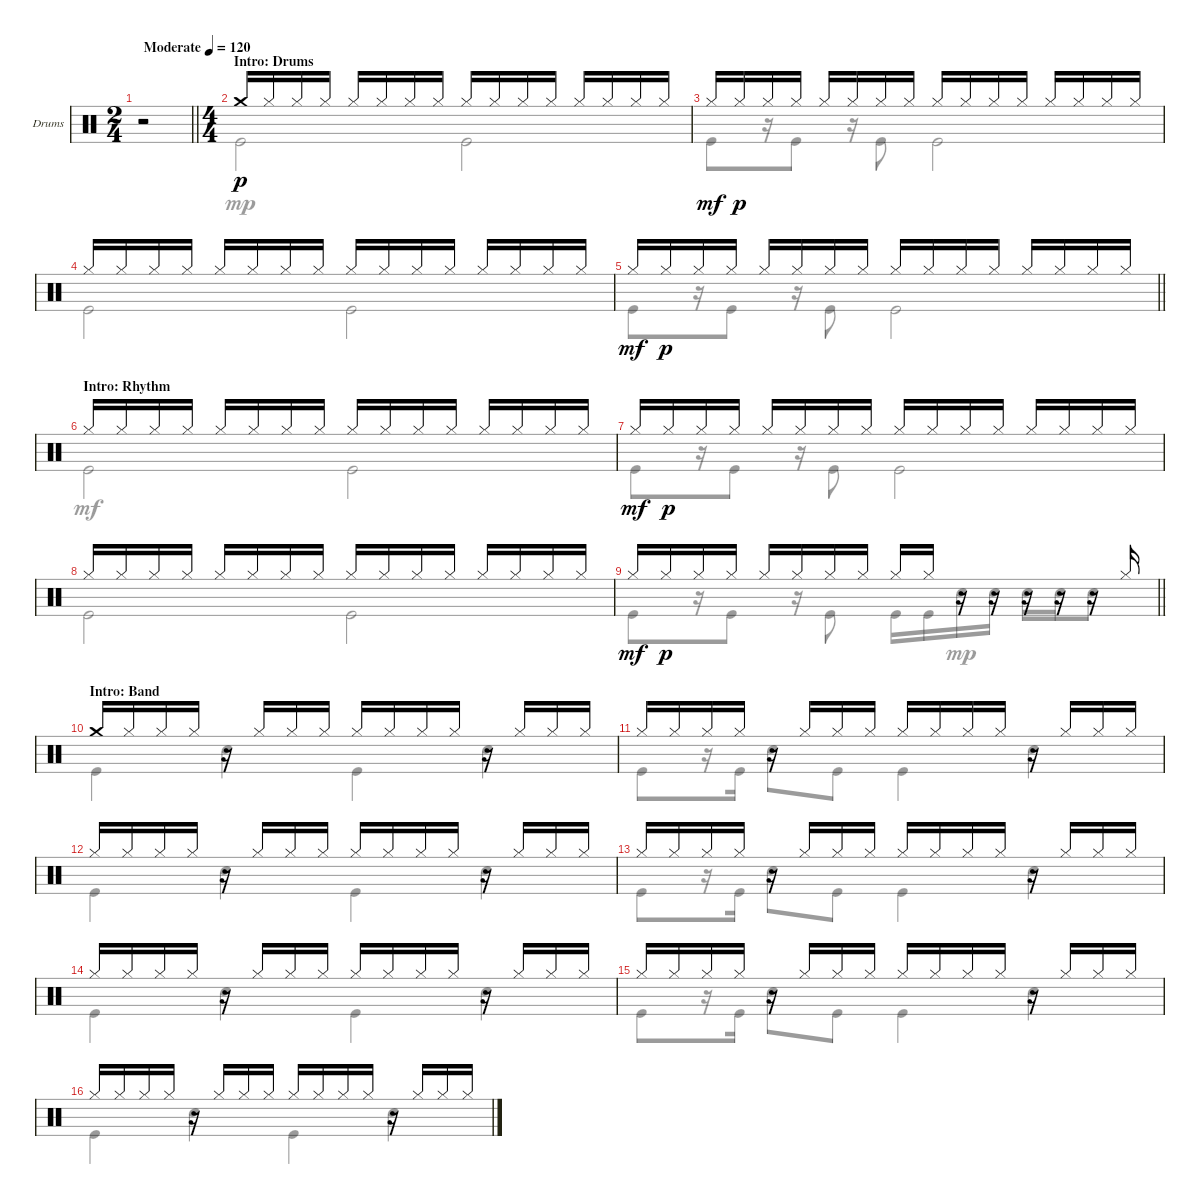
\bracketExtendMode groupsimilarinstruments
\firstSystemTrackNameOrientation horizontal
\otherSystemsTrackNameOrientation horizontal
\track ("Drumkit" "Drums") {instrument percussion}
\staff {score}
\articulation defaults
\voice
\ts (2 4)
\beaming (8 2 2)
\tempo (120 "Moderate")
\clef neutral
\barLineRight lightlight
\ks c
r.2{dy p} |
\ts (4 4)
\beaming (8 2 2 2 2)
\section ("" "Intro: Drums")
"Crash medium (hit)".16 "Hi-Hat (closed)".16 "Hi-Hat (closed)".16 "Hi-Hat (closed)".16 "Hi-Hat (closed)".16 "Hi-Hat (closed)".16 "Hi-Hat (closed)".16 "Hi-Hat (closed)".16 "Hi-Hat (closed)".16 "Hi-Hat (closed)".16 "Hi-Hat (closed)".16 "Hi-Hat (closed)".16 "Hi-Hat (closed)".16 "Hi-Hat (closed)".16 "Hi-Hat (closed)".16 "Hi-Hat (closed)".16 |
"Hi-Hat (closed)".16{dy mf} "Hi-Hat (closed)".16{dy p} "Hi-Hat (closed)".16 "Hi-Hat (closed)".16 "Hi-Hat (closed)".16 "Hi-Hat (closed)".16 "Hi-Hat (closed)".16 "Hi-Hat (closed)".16 "Hi-Hat (closed)".16 "Hi-Hat (closed)".16 "Hi-Hat (closed)".16 "Hi-Hat (closed)".16 "Hi-Hat (closed)".16 "Hi-Hat (closed)".16 "Hi-Hat (closed)".16 "Hi-Hat (closed)".16 |
"Hi-Hat (closed)".16 "Hi-Hat (closed)".16 "Hi-Hat (closed)".16 "Hi-Hat (closed)".16 "Hi-Hat (closed)".16 "Hi-Hat (closed)".16 "Hi-Hat (closed)".16 "Hi-Hat (closed)".16 "Hi-Hat (closed)".16 "Hi-Hat (closed)".16 "Hi-Hat (closed)".16 "Hi-Hat (closed)".16 "Hi-Hat (closed)".16 "Hi-Hat (closed)".16 "Hi-Hat (closed)".16 "Hi-Hat (closed)".16 |
\barLineRight lightlight "Hi-Hat (closed)".16{dy mf} "Hi-Hat (closed)".16{dy p} "Hi-Hat (closed)".16 "Hi-Hat (closed)".16 "Hi-Hat (closed)".16 "Hi-Hat (closed)".16 "Hi-Hat (closed)".16 "Hi-Hat (closed)".16 "Hi-Hat (closed)".16 "Hi-Hat (closed)".16 "Hi-Hat (closed)".16 "Hi-Hat (closed)".16 "Hi-Hat (closed)".16 "Hi-Hat (closed)".16 "Hi-Hat (closed)".16 "Hi-Hat (closed)".16
|
\section ("" "Intro: Rhythm")
"Hi-Hat (closed)".16 "Hi-Hat (closed)".16 "Hi-Hat (closed)".16 "Hi-Hat (closed)".16 "Hi-Hat (closed)".16 "Hi-Hat (closed)".16 "Hi-Hat (closed)".16 "Hi-Hat (closed)".16 "Hi-Hat (closed)".16 "Hi-Hat (closed)".16 "Hi-Hat (closed)".16 "Hi-Hat (closed)".16 "Hi-Hat (closed)".16 "Hi-Hat (closed)".16 "Hi-Hat (closed)".16 "Hi-Hat (closed)".16 |
"Hi-Hat (closed)".16{dy mf} "Hi-Hat (closed)".16{dy p} "Hi-Hat (closed)".16 "Hi-Hat (closed)".16 "Hi-Hat (closed)".16 "Hi-Hat (closed)".16 "Hi-Hat (closed)".16 "Hi-Hat (closed)".16 "Hi-Hat (closed)".16 "Hi-Hat (closed)".16 "Hi-Hat (closed)".16 "Hi-Hat (closed)".16 "Hi-Hat (closed)".16 "Hi-Hat (closed)".16 "Hi-Hat (closed)".16 "Hi-Hat (closed)".16 |
"Hi-Hat (closed)".16 "Hi-Hat (closed)".16 "Hi-Hat (closed)".16 "Hi-Hat (closed)".16 "Hi-Hat (closed)".16 "Hi-Hat (closed)".16 "Hi-Hat (closed)".16 "Hi-Hat (closed)".16 "Hi-Hat (closed)".16 "Hi-Hat (closed)".16 "Hi-Hat (closed)".16 "Hi-Hat (closed)".16 "Hi-Hat (closed)".16 "Hi-Hat (closed)".16 "Hi-Hat (closed)".16 "Hi-Hat (closed)".16 |
\barLineRight lightlight "Hi-Hat (closed)".16{dy mf} "Hi-Hat (closed)".16{dy p} "Hi-Hat (closed)".16 "Hi-Hat (closed)".16 "Hi-Hat (closed)".16 "Hi-Hat (closed)".16 "Hi-Hat (closed)".16 "Hi-Hat (closed)".16 "Hi-Hat (closed)".16 "Hi-Hat (closed)".16
r.16 r.16 r.16 r.16 r.16 "Hi-Hat (closed)".16 |
\section ("" "Intro: Band")
"Crash medium (hit)".16 "Hi-Hat (closed)".16 "Hi-Hat (closed)".16 "Hi-Hat (closed)".16 r.16 "Hi-Hat (closed)".16 "Hi-Hat (closed)".16 "Hi-Hat (closed)".16 "Hi-Hat (closed)".16 "Hi-Hat (closed)".16 "Hi-Hat (closed)".16 "Hi-Hat (closed)".16 r.16 "Hi-Hat (closed)".16 "Hi-Hat (closed)".16 "Hi-Hat (closed)".16 |
"Hi-Hat (closed)".16 "Hi-Hat (closed)".16 "Hi-Hat (closed)".16 "Hi-Hat (closed)".16 r.16 "Hi-Hat (closed)".16 "Hi-Hat (closed)".16 "Hi-Hat (closed)".16 "Hi-Hat (closed)".16 "Hi-Hat (closed)".16 "Hi-Hat (closed)".16 "Hi-Hat (closed)".16 r.16 "Hi-Hat (closed)".16 "Hi-Hat (closed)".16 "Hi-Hat (closed)".16 |
"Hi-Hat (closed)".16 "Hi-Hat (closed)".16 "Hi-Hat (closed)".16 "Hi-Hat (closed)".16 r.16 "Hi-Hat (closed)".16 "Hi-Hat (closed)".16 "Hi-Hat (closed)".16 "Hi-Hat (closed)".16 "Hi-Hat (closed)".16 "Hi-Hat (closed)".16 "Hi-Hat (closed)".16 r.16 "Hi-Hat (closed)".16 "Hi-Hat (closed)".16 "Hi-Hat (closed)".16 |
"Hi-Hat (closed)".16 "Hi-Hat (closed)".16 "Hi-Hat (closed)".16 "Hi-Hat (closed)".16 r.16 "Hi-Hat (closed)".16 "Hi-Hat (closed)".16 "Hi-Hat (closed)".16 "Hi-Hat (closed)".16 "Hi-Hat (closed)".16 "Hi-Hat (closed)".16 "Hi-Hat (closed)".16 r.16 "Hi-Hat (closed)".16 "Hi-Hat (closed)".16 "Hi-Hat (closed)".16 |
"Hi-Hat (closed)".16 "Hi-Hat (closed)".16 "Hi-Hat (closed)".16 "Hi-Hat (closed)".16 r.16 "Hi-Hat (closed)".16 "Hi-Hat (closed)".16 "Hi-Hat (closed)".16 "Hi-Hat (closed)".16 "Hi-Hat (closed)".16 "Hi-Hat (closed)".16 "Hi-Hat (closed)".16 r.16 "Hi-Hat (closed)".16 "Hi-Hat (closed)".16 "Hi-Hat (closed)".16 |
"Hi-Hat (closed)".16 "Hi-Hat (closed)".16 "Hi-Hat (closed)".16 "Hi-Hat (closed)".16 r.16 "Hi-Hat (closed)".16 "Hi-Hat (closed)".16 "Hi-Hat (closed)".16 "Hi-Hat (closed)".16 "Hi-Hat (closed)".16 "Hi-Hat (closed)".16 "Hi-Hat (closed)".16 r.16 "Hi-Hat (closed)".16 "Hi-Hat (closed)".16 "Hi-Hat (closed)".16 |
"Hi-Hat (closed)".16 "Hi-Hat (closed)".16 "Hi-Hat (closed)".16 "Hi-Hat (closed)".16 r.16 "Hi-Hat (closed)".16 "Hi-Hat (closed)".16 "Hi-Hat (closed)".16 "Hi-Hat (closed)".16 "Hi-Hat (closed)".16 "Hi-Hat (closed)".16 "Hi-Hat (closed)".16 r.16 "Hi-Hat (closed)".16 "Hi-Hat (closed)".16 "Hi-Hat (closed)".16
\voice
\clef neutral
\ottava regular
\simile none
\barLineRight lightlight
\ks c
r.2{dy mp} |
"Kick (hit)".2 "Kick (hit)".2 |
"Kick (hit)".8 r.16 "Kick (hit)".8 r.16 "Kick (hit)".8 "Kick (hit)".2 |
"Kick (hit)".2 "Kick (hit)".2 |
\barLineRight lightlight "Kick (hit)".8
r.16 "Kick (hit)".8 r.16 "Kick (hit)".8 "Kick (hit)".2 |
"Kick (hit)".2{dy mf} "Kick (hit)".2 |
"Kick (hit)".8 r.16 "Kick (hit)".8 r.16 "Kick (hit)".8 "Kick (hit)".2 |
"Kick (hit)".2 "Kick (hit)".2 |
\barLineRight lightlight "Kick (hit)".8
r.16 "Kick (hit)".8 r.16 "Kick (hit)".8 "Kick (hit)".16 "Kick (hit)".16 "Snare (hit) 2".16{dy mp} "Snare (hit) 2".16 "Snare (hit) 2".16 "Snare (hit) 2".16 "Snare (hit) 2".8 |
"Kick (hit)".4 "Snare (hit) 2".4 "Kick (hit)".4 "Snare (hit) 2".4 |
"Kick (hit)".8 r.16 "Kick (hit)".16 "Snare (hit) 2".8 "Kick (hit)".8 "Kick (hit)".4 "Snare (hit) 2".4 |
"Kick (hit)".4 "Snare (hit) 2".4 "Kick (hit)".4 "Snare (hit) 2".4 |
"Kick (hit)".8 r.16 "Kick (hit)".16 "Snare (hit) 2".8 "Kick (hit)".8 "Kick (hit)".4 "Snare (hit) 2".4 |
"Kick (hit)".4 "Snare (hit) 2".4 "Kick (hit)".4 "Snare (hit) 2".4 |
"Kick (hit)".8 r.16 "Kick (hit)".16 "Snare (hit) 2".8 "Kick (hit)".8 "Kick (hit)".4 "Snare (hit) 2".4 |
"Kick (hit)".4 "Snare (hit) 2".4 "Kick (hit)".4 "Snare (hit) 2".4
